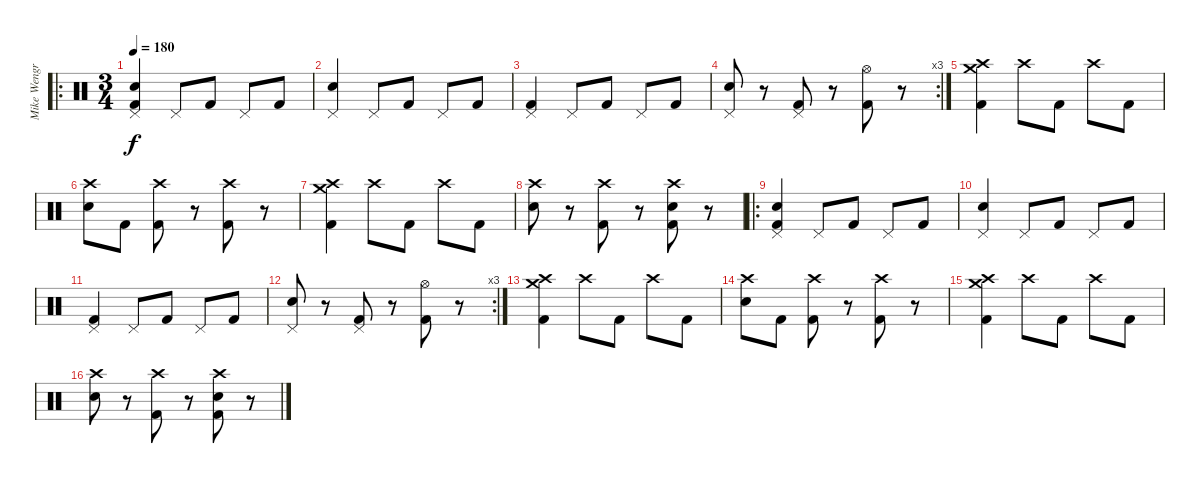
\track ("Mike Wengren" "Mike Wengr") {instrument percussion}
\staff {score}
\articulation defaults
\ro
\ts (3 4)
\tempo 180
\clef neutral
\ks c
("Pedal Hi-Hat (hit)" "Snare (hit) 2" "Kick (hit) 2").4{dy f} "Pedal Hi-Hat (hit)".8 "Kick (hit) 2".8 "Pedal Hi-Hat (hit)".8 "Kick (hit) 2".8 |
("Pedal Hi-Hat (hit)" "Snare (hit) 2").4 "Pedal Hi-Hat (hit)".8 "Kick (hit) 2".8 "Pedal Hi-Hat (hit)".8 "Kick (hit) 2".8 |
("Pedal Hi-Hat (hit)" "Kick (hit) 2").4 "Pedal Hi-Hat (hit)".8 "Kick (hit) 2".8 "Pedal Hi-Hat (hit)".8 "Kick (hit) 2".8 |
\rc 3
("Pedal Hi-Hat (hit)" "Snare (hit) 2").8 r.8 ("Pedal Hi-Hat (hit)" "Kick (hit) 2").8 r.8 ("Hi-Hat (open)" "Kick (hit) 2").8 r.8 |
("Crash medium (hit)" "Crash high (hit)" "Kick (hit) 2").4 "Crash high (hit)".8 "Kick (hit) 2".8 "Crash high (hit)".8 "Kick (hit) 2".8 |
("Crash high (hit)" "Snare (hit) 2").8 "Kick (hit) 2".8 ("Crash high (hit)" "Kick (hit) 2").8 r.8 ("Crash high (hit)" "Kick (hit) 2").8 r.8 |
("Crash medium (hit)" "Crash high (hit)" "Kick (hit) 2").4 "Crash high (hit)".8 "Kick (hit) 2".8 "Crash high (hit)".8 "Kick (hit) 2".8 |
("Crash high (hit)" "Snare (hit) 2").8 r.8 ("Crash high (hit)" "Kick (hit) 2").8 r.8 ("Crash high (hit)" "Snare (hit) 2" "Kick (hit) 2").8 r.8 |
\ro
("Pedal Hi-Hat (hit)" "Snare (hit) 2" "Kick (hit) 2").4 "Pedal Hi-Hat (hit)".8 "Kick (hit) 2".8 "Pedal Hi-Hat (hit)".8 "Kick (hit) 2".8 |
("Pedal Hi-Hat (hit)" "Snare (hit) 2").4 "Pedal Hi-Hat (hit)".8 "Kick (hit) 2".8 "Pedal Hi-Hat (hit)".8 "Kick (hit) 2".8 |
("Pedal Hi-Hat (hit)" "Kick (hit) 2").4 "Pedal Hi-Hat (hit)".8 "Kick (hit) 2".8 "Pedal Hi-Hat (hit)".8 "Kick (hit) 2".8 |
\rc 3
("Pedal Hi-Hat (hit)" "Snare (hit) 2").8 r.8 ("Pedal Hi-Hat (hit)" "Kick (hit) 2").8 r.8 ("Hi-Hat (open)" "Kick (hit) 2").8 r.8 |
("Crash medium (hit)" "Crash high (hit)" "Kick (hit) 2").4 "Crash high (hit)".8 "Kick (hit) 2".8 "Crash high (hit)".8 "Kick (hit) 2".8 |
("Crash high (hit)" "Snare (hit) 2").8 "Kick (hit) 2".8 ("Crash high (hit)" "Kick (hit) 2").8 r.8 ("Crash high (hit)" "Kick (hit) 2").8 r.8 |
("Crash medium (hit)" "Crash high (hit)" "Kick (hit) 2").4 "Crash high (hit)".8 "Kick (hit) 2".8 "Crash high (hit)".8 "Kick (hit) 2".8 |
("Crash high (hit)" "Snare (hit) 2").8 r.8 ("Crash high (hit)" "Kick (hit) 2").8 r.8 ("Crash high (hit)" "Snare (hit) 2" "Kick (hit) 2").8 r.8
